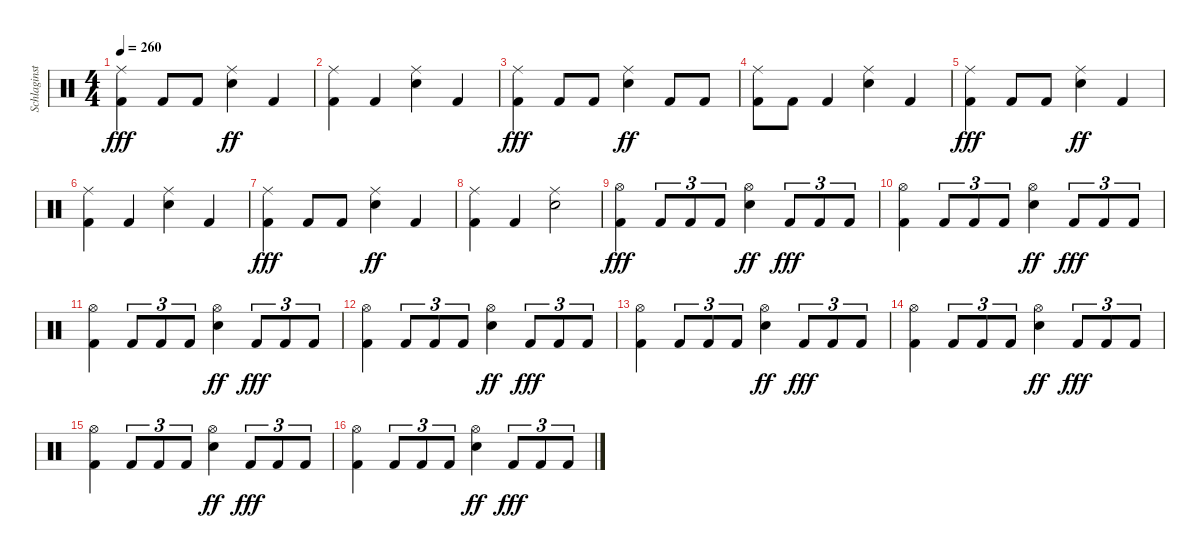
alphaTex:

\track ("Schlaginstrumente - Auswahl" "Schlaginst") {instrument percussion}
\staff {score}
\articulation defaults
\ts (4 4)
\tempo 260
\clef neutral
\ks c
("Ride (middle)" "Kick (hit) 2").4{dy fff} "Kick (hit) 2".8 "Kick (hit) 2".8 ("Ride (middle)" "Snare (hit) 2").4{dy ff} "Kick (hit) 2".4 |
("Ride (middle)" "Kick (hit) 2").4 "Kick (hit) 2".4 ("Ride (middle)" "Snare (hit) 2").4 "Kick (hit) 2".4 |
("Ride (middle)" "Kick (hit) 2").4{dy fff} "Kick (hit) 2".8 "Kick (hit) 2".8 ("Ride (middle)" "Snare (hit) 2").4{dy ff} "Kick (hit) 2".8 "Kick (hit) 2".8 |
("Ride (middle)" "Kick (hit) 2").8 "Kick (hit) 2".8 "Kick (hit) 2".4 ("Ride (middle)" "Snare (hit) 2").4 "Kick (hit) 2".4 |
("Ride (middle)" "Kick (hit) 2").4{dy fff} "Kick (hit) 2".8 "Kick (hit) 2".8 ("Ride (middle)" "Snare (hit) 2").4{dy ff} "Kick (hit) 2".4 |
("Ride (middle)" "Kick (hit) 2").4 "Kick (hit) 2".4 ("Ride (middle)" "Snare (hit) 2").4 "Kick (hit) 2".4 |
("Ride (middle)" "Kick (hit) 2").4{dy fff} "Kick (hit) 2".8 "Kick (hit) 2".8 ("Ride (middle)" "Snare (hit) 2").4{dy ff} "Kick (hit) 2".4 |
("Ride (middle)" "Kick (hit) 2").4 "Kick (hit) 2".4 ("Ride (middle)" "Snare (hit) 2").2 |
("Hi-Hat (open)" "Kick (hit) 2").4{dy fff} "Kick (hit) 2".8{tu (3 2)} "Kick (hit) 2".8{tu (3 2)} "Kick (hit) 2".8{tu (3 2)} ("Hi-Hat (open)" "Snare (hit) 2").4{dy ff} "Kick (hit) 2".8{tu (3 2) dy fff} "Kick (hit) 2".8{tu (3 2)} "Kick (hit) 2".8{tu (3 2)} |
("Hi-Hat (open)" "Kick (hit) 2").4 "Kick (hit) 2".8{tu (3 2)} "Kick (hit) 2".8{tu (3 2)} "Kick (hit) 2".8{tu (3 2)} ("Hi-Hat (open)" "Snare (hit) 2").4{dy ff} "Kick (hit) 2".8{tu (3 2) dy fff} "Kick (hit) 2".8{tu (3 2)} "Kick (hit) 2".8{tu (3 2)} |
("Hi-Hat (open)" "Kick (hit) 2").4 "Kick (hit) 2".8{tu (3 2)} "Kick (hit) 2".8{tu (3 2)} "Kick (hit) 2".8{tu (3 2)} ("Hi-Hat (open)" "Snare (hit) 2").4{dy ff} "Kick (hit) 2".8{tu (3 2) dy fff} "Kick (hit) 2".8{tu (3 2)} "Kick (hit) 2".8{tu (3 2)} |
("Hi-Hat (open)" "Kick (hit) 2").4 "Kick (hit) 2".8{tu (3 2)} "Kick (hit) 2".8{tu (3 2)} "Kick (hit) 2".8{tu (3 2)} ("Hi-Hat (open)" "Snare (hit) 2").4{dy ff} "Kick (hit) 2".8{tu (3 2) dy fff} "Kick (hit) 2".8{tu (3 2)} "Kick (hit) 2".8{tu (3 2)} |
("Hi-Hat (open)" "Kick (hit) 2").4 "Kick (hit) 2".8{tu (3 2)} "Kick (hit) 2".8{tu (3 2)} "Kick (hit) 2".8{tu (3 2)} ("Hi-Hat (open)" "Snare (hit) 2").4{dy ff} "Kick (hit) 2".8{tu (3 2) dy fff} "Kick (hit) 2".8{tu (3 2)} "Kick (hit) 2".8{tu (3 2)} |
("Hi-Hat (open)" "Kick (hit) 2").4 "Kick (hit) 2".8{tu (3 2)} "Kick (hit) 2".8{tu (3 2)} "Kick (hit) 2".8{tu (3 2)} ("Hi-Hat (open)" "Snare (hit) 2").4{dy ff} "Kick (hit) 2".8{tu (3 2) dy fff} "Kick (hit) 2".8{tu (3 2)} "Kick (hit) 2".8{tu (3 2)} |
("Hi-Hat (open)" "Kick (hit) 2").4 "Kick (hit) 2".8{tu (3 2)} "Kick (hit) 2".8{tu (3 2)} "Kick (hit) 2".8{tu (3 2)} ("Hi-Hat (open)" "Snare (hit) 2").4{dy ff} "Kick (hit) 2".8{tu (3 2) dy fff} "Kick (hit) 2".8{tu (3 2)} "Kick (hit) 2".8{tu (3 2)} |
("Hi-Hat (open)" "Kick (hit) 2").4 "Kick (hit) 2".8{tu (3 2)} "Kick (hit) 2".8{tu (3 2)} "Kick (hit) 2".8{tu (3 2)} ("Hi-Hat (open)" "Snare (hit) 2").4{dy ff} "Kick (hit) 2".8{tu (3 2) dy fff} "Kick (hit) 2".8{tu (3 2)} "Kick (hit) 2".8{tu (3 2)}
